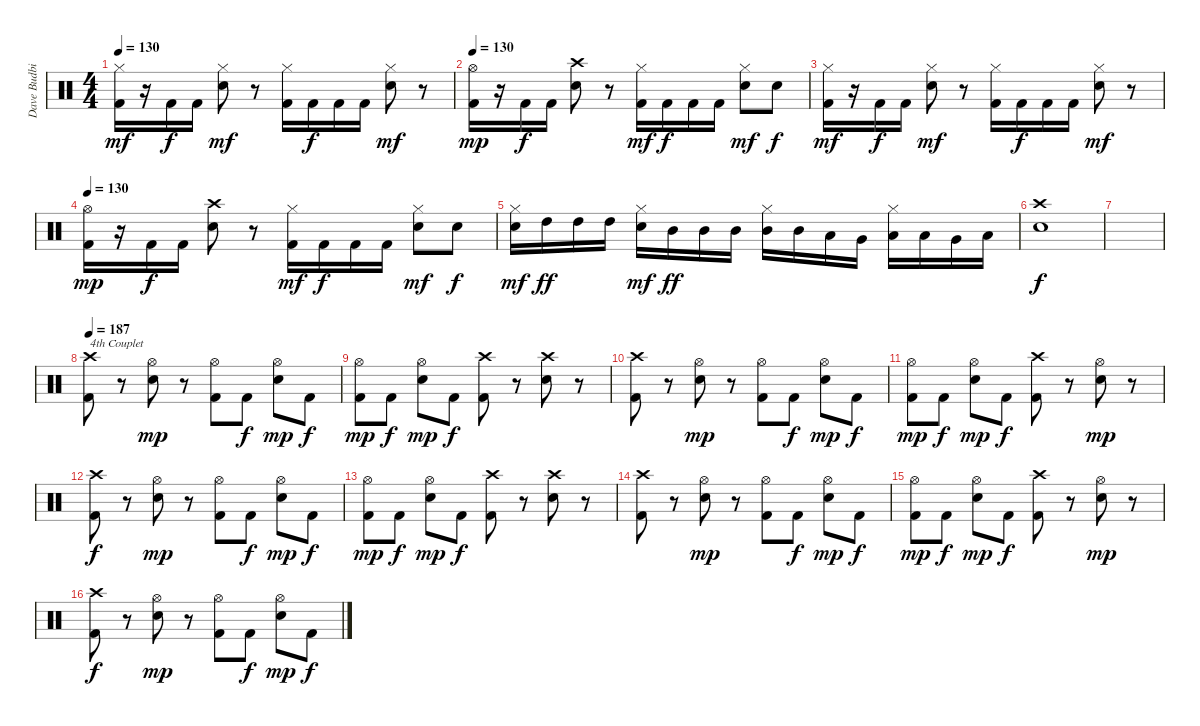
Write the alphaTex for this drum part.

\track ("Dave Budbill" "Dave Budbi") {instrument percussion}
\staff {score}
\articulation defaults
\ts (4 4)
\tempo 130
\clef neutral
\ks c
("Hi-Hat (closed)" "Kick (hit) 2").16{dy mf} r.16 "Kick (hit) 2".16{dy f} "Kick (hit) 2".16 ("Hi-Hat (closed)" "Snare (hit) 2").8{dy mf} r.8 ("Hi-Hat (closed)" "Kick (hit) 2").16 "Kick (hit) 2".16{dy f} "Kick (hit) 2".16 "Kick (hit) 2".16 ("Hi-Hat (closed)" "Snare (hit) 2").8{dy mf} r.8 |
\tempo 130
("Hi-Hat (open)" "Kick (hit) 2").16{dy mp} r.16 "Kick (hit) 2".16{dy f} "Kick (hit) 2".16 ("Crash high (hit)" "Snare (hit) 2").8 r.8 ("Hi-Hat (closed)" "Kick (hit) 2").16{dy mf} "Kick (hit) 2".16{dy f} "Kick (hit) 2".16 "Kick (hit) 2".16 ("Hi-Hat (closed)" "Snare (hit) 2").8{dy mf} "Snare (hit) 2".8{dy f} |
("Hi-Hat (closed)" "Kick (hit) 2").16{dy mf} r.16 "Kick (hit) 2".16{dy f} "Kick (hit) 2".16 ("Hi-Hat (closed)" "Snare (hit) 2").8{dy mf} r.8 ("Hi-Hat (closed)" "Kick (hit) 2").16 "Kick (hit) 2".16{dy f} "Kick (hit) 2".16 "Kick (hit) 2".16 ("Hi-Hat (closed)" "Snare (hit) 2").8{dy mf} r.8 |
\tempo 130
("Hi-Hat (open)" "Kick (hit) 2").16{dy mp} r.16 "Kick (hit) 2".16{dy f} "Kick (hit) 2".16 ("Crash high (hit)" "Snare (hit) 2").8 r.8 ("Hi-Hat (closed)" "Kick (hit) 2").16{dy mf} "Kick (hit) 2".16{dy f} "Kick (hit) 2".16 "Kick (hit) 2".16 ("Hi-Hat (closed)" "Snare (hit) 2").8{dy mf} "Snare (hit) 2".8{dy f} |
("Hi-Hat (closed)" "Snare (hit) 2").16{dy mf} "High Tom (hit)".16{dy ff} "High Tom (hit)".16 "High Tom (hit)".16 ("Hi-Hat (closed)" "Snare (hit) 2").16{dy mf} "Mid Tom (hit)".16{dy ff} "Mid Tom (hit)".16 "Mid Tom (hit)".16 ("Hi-Hat (closed)" "Mid Tom (hit)").16 "Mid Tom (hit)".16 "Low Tom (hit)".16 "Very Low Tom (hit)".16 ("Hi-Hat (closed)" "Low Tom (hit)").16 "Low Tom (hit)".16 "Very Low Tom (hit)".16 "Low Floor Tom (hit)".16 |
("Crash high (hit)" "Snare (hit) 2").1{dy f} |
|
\tempo 187
("Crash high (hit)" "Kick (hit) 2").8{txt "4th Couplet"} r.8 ("Hi-Hat (open)" "Snare (hit) 2").8{dy mp} r.8 ("Hi-Hat (open)" "Kick (hit) 2").8 "Kick (hit) 2".8{dy f} ("Hi-Hat (open)" "Snare (hit) 2").8{dy mp} "Kick (hit) 2".8{dy f} |
("Hi-Hat (open)" "Kick (hit) 2").8{dy mp} "Kick (hit) 2".8{dy f} ("Hi-Hat (open)" "Snare (hit) 2").8{dy mp} "Kick (hit) 2".8{dy f} ("Crash high (hit)" "Kick (hit) 2").8 r.8 ("Crash high (hit)" "Snare (hit) 2").8 r.8 |
("Crash high (hit)" "Kick (hit) 2").8 r.8 ("Hi-Hat (open)" "Snare (hit) 2").8{dy mp} r.8 ("Hi-Hat (open)" "Kick (hit) 2").8 "Kick (hit) 2".8{dy f} ("Hi-Hat (open)" "Snare (hit) 2").8{dy mp} "Kick (hit) 2".8{dy f} |
("Hi-Hat (open)" "Kick (hit) 2").8{dy mp} "Kick (hit) 2".8{dy f} ("Hi-Hat (open)" "Snare (hit) 2").8{dy mp} "Kick (hit) 2".8{dy f} ("Crash high (hit)" "Kick (hit) 2").8 r.8 ("Hi-Hat (open)" "Snare (hit) 2").8{dy mp} r.8 |
("Crash high (hit)" "Kick (hit) 2").8{dy f} r.8 ("Hi-Hat (open)" "Snare (hit) 2").8{dy mp} r.8 ("Hi-Hat (open)" "Kick (hit) 2").8 "Kick (hit) 2".8{dy f} ("Hi-Hat (open)" "Snare (hit) 2").8{dy mp} "Kick (hit) 2".8{dy f} |
("Hi-Hat (open)" "Kick (hit) 2").8{dy mp} "Kick (hit) 2".8{dy f} ("Hi-Hat (open)" "Snare (hit) 2").8{dy mp} "Kick (hit) 2".8{dy f} ("Crash high (hit)" "Kick (hit) 2").8 r.8 ("Crash high (hit)" "Snare (hit) 2").8 r.8 |
("Crash high (hit)" "Kick (hit) 2").8 r.8 ("Hi-Hat (open)" "Snare (hit) 2").8{dy mp} r.8 ("Hi-Hat (open)" "Kick (hit) 2").8 "Kick (hit) 2".8{dy f} ("Hi-Hat (open)" "Snare (hit) 2").8{dy mp} "Kick (hit) 2".8{dy f} |
("Hi-Hat (open)" "Kick (hit) 2").8{dy mp} "Kick (hit) 2".8{dy f} ("Hi-Hat (open)" "Snare (hit) 2").8{dy mp} "Kick (hit) 2".8{dy f} ("Crash high (hit)" "Kick (hit) 2").8 r.8 ("Hi-Hat (open)" "Snare (hit) 2").8{dy mp} r.8 |
("Crash high (hit)" "Kick (hit) 2").8{dy f} r.8 ("Hi-Hat (open)" "Snare (hit) 2").8{dy mp} r.8 ("Hi-Hat (open)" "Kick (hit) 2").8 "Kick (hit) 2".8{dy f} ("Hi-Hat (open)" "Snare (hit) 2").8{dy mp} "Kick (hit) 2".8{dy f}
